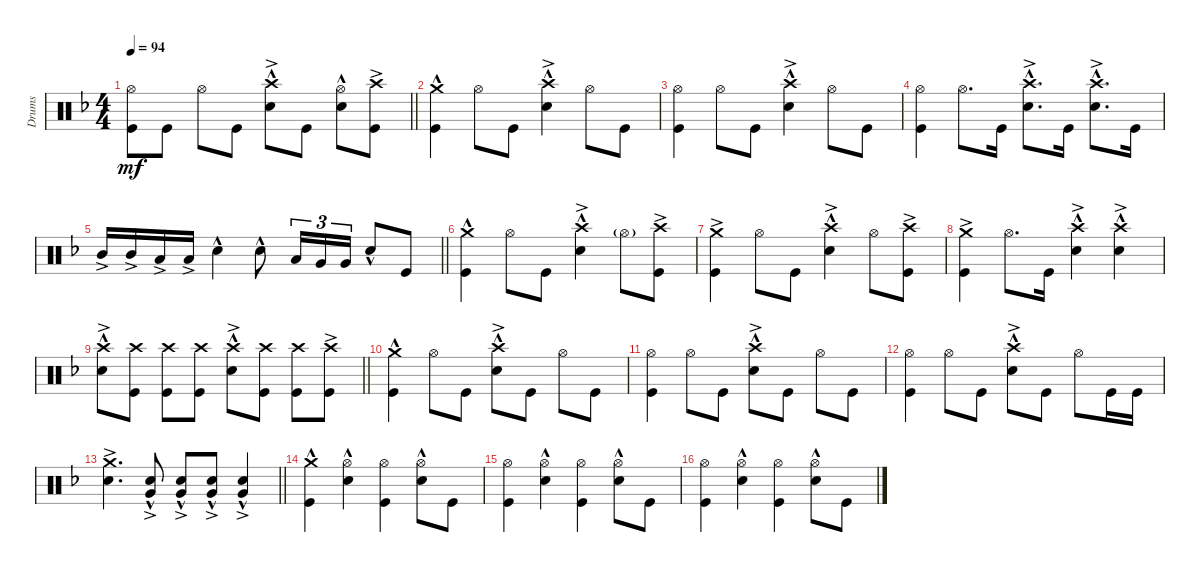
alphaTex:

\track ("Drums" "Drums") {instrument percussion}
\staff {score}
\articulation defaults
\ts (4 4)
\tempo 94
\clef neutral
\barLineRight lightlight
\ks dminor
("Kick (hit)" "Hi-Hat (open)").8{dy mf} "Kick (hit)".8 "Hi-Hat (open)".8 "Kick (hit)".8 ("Snare (hit) 2"{hac} "Crash high (hit)"{ac}).8 "Kick (hit)".8 ("Hi-Hat (open)" "Snare (hit) 2"{hac}).8 ("Kick (hit)" "Crash high (hit)"{ac}).8 |
("Crash medium (hit)"{hac} "Kick (hit)").4 "Hi-Hat (open)".8 "Kick (hit)".8 ("Snare (hit) 2"{hac} "Crash high (hit)"{ac}).4 "Hi-Hat (open)".8 "Kick (hit)".8 |
("Kick (hit)" "Hi-Hat (open)").4 "Hi-Hat (open)".8 "Kick (hit)".8 ("Snare (hit) 2"{hac} "Crash high (hit)"{ac}).4 "Hi-Hat (open)".8 "Kick (hit)".8 |
("Kick (hit)" "Hi-Hat (open)").4 "Hi-Hat (open)".8{d} "Kick (hit)".16 ("Snare (hit) 2"{hac} "Crash high (hit)"{ac}).8{d} "Kick (hit)".16 ("Snare (hit) 2"{hac} "Crash high (hit)"{ac}).8{d} "Kick (hit)".16 |
\barLineRight lightlight "Mid Tom (hit)"{ac}.16 "Mid Tom (hit)"{ac}.16 "Low Tom (hit)"{ac}.16 "Low Tom (hit)"{ac}.16 "Snare (hit) 2"{hac}.4 "Snare (hit) 2"{hac}.8 "Low Tom (hit)".16{tu (3 2)} "Very Low Tom (hit)".16{tu (3 2)} "Very Low Tom (hit)".16{tu (3 2)} "Snare (hit) 2"{hac}.8 "Kick (hit)".8
|
("Crash medium (hit)"{hac} "Kick (hit)").4 "Hi-Hat (open)".8 "Kick (hit)".8 ("Snare (hit) 2"{hac} "Crash high (hit)"{ac}).4 "Hi-Hat (open)"{g}.8 ("Kick (hit)" "Crash high (hit)"{ac}).8 |
("Kick (hit)" "Crash medium (hit)"{ac}).4 "Hi-Hat (open)".8 "Kick (hit)".8 ("Snare (hit) 2"{hac} "Crash high (hit)"{ac}).4 "Hi-Hat (open)".8 ("Kick (hit)" "Crash high (hit)"{ac}).8 |
("Kick (hit)" "Crash medium (hit)"{ac}).4 "Hi-Hat (open)".8{d} "Kick (hit)".16 ("Snare (hit) 2"{hac} "Crash high (hit)"{ac}).4 ("Snare (hit) 2"{hac} "Crash high (hit)"{ac}).4 |
\barLineRight lightlight
("Snare (hit) 2"{hac} "Crash high (hit)"{ac}).8 ("Kick (hit)" "Crash high (hit)").8 ("Kick (hit)" "Crash high (hit)").8 ("Kick (hit)" "Crash high (hit)").8 ("Snare (hit) 2"{hac} "Crash high (hit)"{ac}).8 ("Kick (hit)" "Crash high (hit)").8 ("Kick (hit)" "Crash high (hit)").8 ("Kick (hit)" "Crash high (hit)"{ac}).8 |
("Crash medium (hit)"{hac} "Kick (hit)").4 "Hi-Hat (open)".8 "Kick (hit)".8 ("Snare (hit) 2"{hac} "Crash high (hit)"{ac}).8 "Kick (hit)".8 "Hi-Hat (open)".8 "Kick (hit)".8 |
("Kick (hit)" "Hi-Hat (open)").4 "Hi-Hat (open)".8 "Kick (hit)".8 ("Snare (hit) 2"{hac} "Crash high (hit)"{ac}).8 "Kick (hit)".8 "Hi-Hat (open)".8 "Kick (hit)".8 |
("Kick (hit)" "Hi-Hat (open)").4 "Hi-Hat (open)".8 "Kick (hit)".8 ("Snare (hit) 2"{hac} "Crash high (hit)"{ac}).8 "Kick (hit)".8 "Hi-Hat (open)".8 "Kick (hit)".16 "Kick (hit)".16 |
\barLineRight lightlight
("Snare (hit) 2" "Crash medium (hit)"{ac}).4{d} ("Snare (hit) 2"{hac} "Very Low Tom (hit)"{ac}).8 ("Snare (hit) 2"{hac} "Very Low Tom (hit)"{ac}).8 ("Snare (hit) 2"{hac} "Very Low Tom (hit)"{ac}).8 ("Snare (hit) 2"{hac} "Very Low Tom (hit)"{ac}).4 |
("Crash medium (hit)"{hac} "Kick (hit)").4 ("Hi-Hat (open)" "Snare (hit) 2"{hac}).4 ("Hi-Hat (open)" "Kick (hit)").4 ("Hi-Hat (open)" "Snare (hit) 2"{hac}).8 "Kick (hit)".8 |
("Kick (hit)" "Hi-Hat (open)").4 ("Hi-Hat (open)" "Snare (hit) 2"{hac}).4 ("Hi-Hat (open)" "Kick (hit)").4 ("Hi-Hat (open)" "Snare (hit) 2"{hac}).8 "Kick (hit)".8 |
("Kick (hit)" "Hi-Hat (open)").4 ("Hi-Hat (open)" "Snare (hit) 2"{hac}).4 ("Hi-Hat (open)" "Kick (hit)").4 ("Hi-Hat (open)" "Snare (hit) 2"{hac}).8 "Kick (hit)".8
